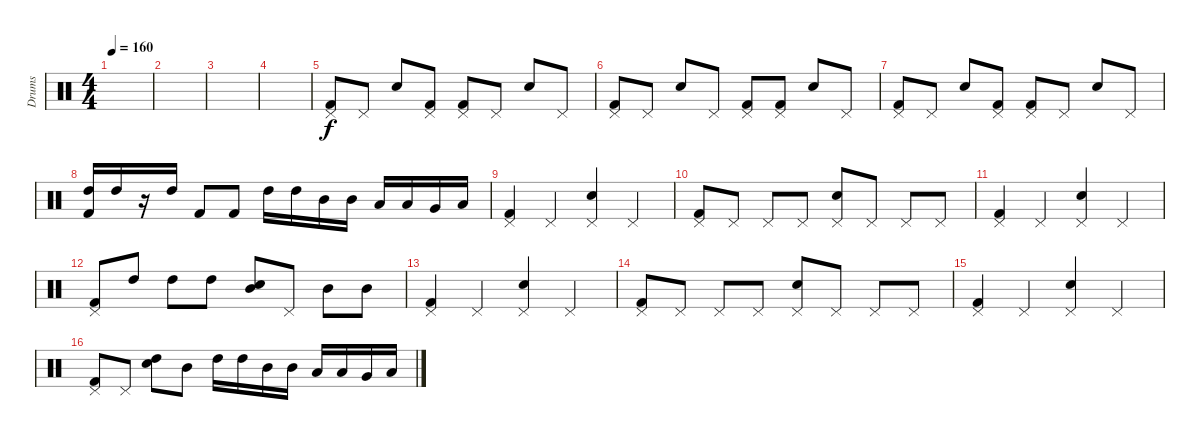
\track ("Drums" "Drums") {instrument percussion}
\staff {score}
\articulation defaults
\ts (4 4)
\tempo 160
\clef neutral
\ks c
|
|
|
|
("Pedal Hi-Hat (hit)" "Kick (hit) 2").8 "Pedal Hi-Hat (hit)".8 "Electric Snare (hit)".8 ("Pedal Hi-Hat (hit)" "Kick (hit) 2").8 ("Pedal Hi-Hat (hit)" "Kick (hit) 2").8 "Pedal Hi-Hat (hit)".8 "Electric Snare (hit)".8 "Pedal Hi-Hat (hit)".8 |
("Pedal Hi-Hat (hit)" "Kick (hit) 2").8 "Pedal Hi-Hat (hit)".8 "Electric Snare (hit)".8 "Pedal Hi-Hat (hit)".8 ("Pedal Hi-Hat (hit)" "Kick (hit) 2").8 ("Pedal Hi-Hat (hit)" "Kick (hit) 2").8 "Electric Snare (hit)".8 "Pedal Hi-Hat (hit)".8 |
("Pedal Hi-Hat (hit)" "Kick (hit) 2").8 "Pedal Hi-Hat (hit)".8 "Electric Snare (hit)".8 ("Pedal Hi-Hat (hit)" "Kick (hit) 2").8 ("Pedal Hi-Hat (hit)" "Kick (hit) 2").8 "Pedal Hi-Hat (hit)".8 "Electric Snare (hit)".8 "Pedal Hi-Hat (hit)".8 |
("High Tom (hit)" "Kick (hit) 2").16 "High Tom (hit)".16 r.16 "High Tom (hit)".16 "Kick (hit) 2".8 "Kick (hit) 2".8 "High Tom (hit)".16 "High Tom (hit)".16 "Mid Tom (hit)".16 "Mid Tom (hit)".16 "Low Tom (hit)".16 "Low Tom (hit)".16 "Very Low Tom (hit)".16 "Low Floor Tom (hit)".16 |
("Pedal Hi-Hat (hit)" "Kick (hit) 2").4 "Pedal Hi-Hat (hit)".4 ("Pedal Hi-Hat (hit)" "Electric Snare (hit)").4 "Pedal Hi-Hat (hit)".4 |
("Pedal Hi-Hat (hit)" "Kick (hit) 2").8 "Pedal Hi-Hat (hit)".8 "Pedal Hi-Hat (hit)".8 "Pedal Hi-Hat (hit)".8 ("Electric Snare (hit)" "Pedal Hi-Hat (hit)").8 "Pedal Hi-Hat (hit)".8 "Pedal Hi-Hat (hit)".8 "Pedal Hi-Hat (hit)".8 |
("Pedal Hi-Hat (hit)" "Kick (hit) 2").4 "Pedal Hi-Hat (hit)".4 ("Pedal Hi-Hat (hit)" "Electric Snare (hit)").4 "Pedal Hi-Hat (hit)".4 |
("Pedal Hi-Hat (hit)" "Kick (hit) 2").8 "High Tom (hit)".8 "High Tom (hit)".8 "High Tom (hit)".8 ("Mid Tom (hit)" "Electric Snare (hit)").8 "Pedal Hi-Hat (hit)".8 "Mid Tom (hit)".8 "Mid Tom (hit)".8 |
("Pedal Hi-Hat (hit)" "Kick (hit) 2").4 "Pedal Hi-Hat (hit)".4 ("Pedal Hi-Hat (hit)" "Electric Snare (hit)").4 "Pedal Hi-Hat (hit)".4 |
("Pedal Hi-Hat (hit)" "Kick (hit) 2").8 "Pedal Hi-Hat (hit)".8 "Pedal Hi-Hat (hit)".8 "Pedal Hi-Hat (hit)".8 ("Electric Snare (hit)" "Pedal Hi-Hat (hit)").8 "Pedal Hi-Hat (hit)".8 "Pedal Hi-Hat (hit)".8 "Pedal Hi-Hat (hit)".8 |
("Pedal Hi-Hat (hit)" "Kick (hit) 2").4 "Pedal Hi-Hat (hit)".4 ("Pedal Hi-Hat (hit)" "Electric Snare (hit)").4 "Pedal Hi-Hat (hit)".4 |
("Pedal Hi-Hat (hit)" "Kick (hit) 2").8 "Pedal Hi-Hat (hit)".8 ("High Tom (hit)" "Electric Snare (hit)").8 "Mid Tom (hit)".8 "High Tom (hit)".16 "High Tom (hit)".16 "Mid Tom (hit)".16 "Mid Tom (hit)".16 "Low Tom (hit)".16 "Low Tom (hit)".16 "Very Low Tom (hit)".16 "Low Floor Tom (hit)".16
